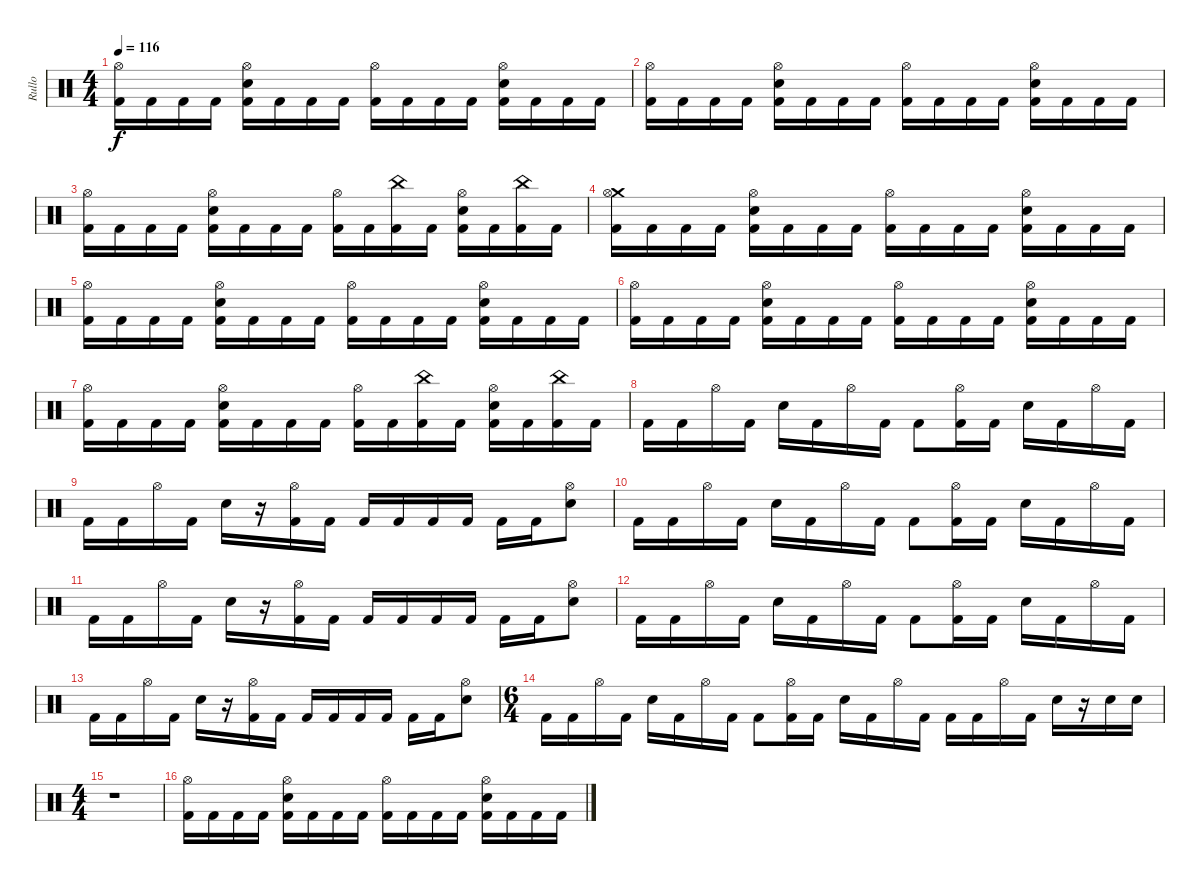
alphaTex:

\track ("Rullo" "Rullo") {instrument percussion}
\staff {score}
\articulation defaults
\ts (4 4)
\tempo 116
\clef neutral
\ks c
("Hi-Hat (open)" "Kick (hit) 2").16{dy f} "Kick (hit) 2".16 "Kick (hit) 2".16 "Kick (hit) 2".16 ("Hi-Hat (open)" "Electric Snare (hit)" "Kick (hit) 2").16 "Kick (hit) 2".16 "Kick (hit) 2".16 "Kick (hit) 2".16 ("Hi-Hat (open)" "Kick (hit) 2").16 "Kick (hit) 2".16 "Kick (hit) 2".16 "Kick (hit) 2".16 ("Hi-Hat (open)" "Electric Snare (hit)" "Kick (hit) 2").16 "Kick (hit) 2".16 "Kick (hit) 2".16 "Kick (hit) 2".16 |
("Hi-Hat (open)" "Kick (hit) 2").16 "Kick (hit) 2".16 "Kick (hit) 2".16 "Kick (hit) 2".16 ("Hi-Hat (open)" "Electric Snare (hit)" "Kick (hit) 2").16 "Kick (hit) 2".16 "Kick (hit) 2".16 "Kick (hit) 2".16 ("Hi-Hat (open)" "Kick (hit) 2").16 "Kick (hit) 2".16 "Kick (hit) 2".16 "Kick (hit) 2".16 ("Hi-Hat (open)" "Electric Snare (hit)" "Kick (hit) 2").16 "Kick (hit) 2".16 "Kick (hit) 2".16 "Kick (hit) 2".16 |
("Hi-Hat (open)" "Kick (hit) 2").16 "Kick (hit) 2".16 "Kick (hit) 2".16 "Kick (hit) 2".16 ("Hi-Hat (open)" "Electric Snare (hit)" "Kick (hit) 2").16 "Kick (hit) 2".16 "Kick (hit) 2".16 "Kick (hit) 2".16 ("Hi-Hat (open)" "Kick (hit) 2").16 "Kick (hit) 2".16 ("China (hit)" "Kick (hit) 2").16 "Kick (hit) 2".16 ("Hi-Hat (open)" "Electric Snare (hit)" "Kick (hit) 2").16 "Kick (hit) 2".16 ("China (hit)" "Kick (hit) 2").16 "Kick (hit) 2".16 |
("Crash medium (hit)" "Hi-Hat (open)" "Kick (hit) 2").16 "Kick (hit) 2".16 "Kick (hit) 2".16 "Kick (hit) 2".16 ("Hi-Hat (open)" "Electric Snare (hit)" "Kick (hit) 2").16 "Kick (hit) 2".16 "Kick (hit) 2".16 "Kick (hit) 2".16 ("Hi-Hat (open)" "Kick (hit) 2").16 "Kick (hit) 2".16 "Kick (hit) 2".16 "Kick (hit) 2".16 ("Hi-Hat (open)" "Electric Snare (hit)" "Kick (hit) 2").16 "Kick (hit) 2".16 "Kick (hit) 2".16 "Kick (hit) 2".16 |
("Hi-Hat (open)" "Kick (hit) 2").16 "Kick (hit) 2".16 "Kick (hit) 2".16 "Kick (hit) 2".16 ("Hi-Hat (open)" "Electric Snare (hit)" "Kick (hit) 2").16 "Kick (hit) 2".16 "Kick (hit) 2".16 "Kick (hit) 2".16 ("Hi-Hat (open)" "Kick (hit) 2").16 "Kick (hit) 2".16 "Kick (hit) 2".16 "Kick (hit) 2".16 ("Hi-Hat (open)" "Electric Snare (hit)" "Kick (hit) 2").16 "Kick (hit) 2".16 "Kick (hit) 2".16 "Kick (hit) 2".16 |
("Hi-Hat (open)" "Kick (hit) 2").16 "Kick (hit) 2".16 "Kick (hit) 2".16 "Kick (hit) 2".16 ("Hi-Hat (open)" "Electric Snare (hit)" "Kick (hit) 2").16 "Kick (hit) 2".16 "Kick (hit) 2".16 "Kick (hit) 2".16 ("Hi-Hat (open)" "Kick (hit) 2").16 "Kick (hit) 2".16 "Kick (hit) 2".16 "Kick (hit) 2".16 ("Hi-Hat (open)" "Electric Snare (hit)" "Kick (hit) 2").16 "Kick (hit) 2".16 "Kick (hit) 2".16 "Kick (hit) 2".16 |
("Hi-Hat (open)" "Kick (hit) 2").16 "Kick (hit) 2".16 "Kick (hit) 2".16 "Kick (hit) 2".16 ("Hi-Hat (open)" "Electric Snare (hit)" "Kick (hit) 2").16 "Kick (hit) 2".16 "Kick (hit) 2".16 "Kick (hit) 2".16 ("Hi-Hat (open)" "Kick (hit) 2").16 "Kick (hit) 2".16 ("China (hit)" "Kick (hit) 2").16 "Kick (hit) 2".16 ("Hi-Hat (open)" "Electric Snare (hit)" "Kick (hit) 2").16 "Kick (hit) 2".16 ("China (hit)" "Kick (hit) 2").16 "Kick (hit) 2".16 |
"Kick (hit) 2".16 "Kick (hit) 2".16 "Hi-Hat (open)".16 "Kick (hit) 2".16 "Electric Snare (hit)".16 "Kick (hit) 2".16 "Hi-Hat (open)".16 "Kick (hit) 2".16 "Kick (hit) 2".8 ("Hi-Hat (open)" "Kick (hit) 2").16 "Kick (hit) 2".16 "Electric Snare (hit)".16 "Kick (hit) 2".16 "Hi-Hat (open)".16 "Kick (hit) 2".16 |
"Kick (hit) 2".16 "Kick (hit) 2".16 "Hi-Hat (open)".16 "Kick (hit) 2".16 "Electric Snare (hit)".16 r.16 ("Hi-Hat (open)" "Kick (hit) 2").16 "Kick (hit) 2".16 "Kick (hit) 2".16 "Kick (hit) 2".16 "Kick (hit) 2".16 "Kick (hit) 2".16 "Kick (hit) 2".16 "Kick (hit) 2".16 ("Hi-Hat (open)" "Electric Snare (hit)").8 |
"Kick (hit) 2".16 "Kick (hit) 2".16 "Hi-Hat (open)".16 "Kick (hit) 2".16 "Electric Snare (hit)".16 "Kick (hit) 2".16 "Hi-Hat (open)".16 "Kick (hit) 2".16 "Kick (hit) 2".8 ("Hi-Hat (open)" "Kick (hit) 2").16 "Kick (hit) 2".16 "Electric Snare (hit)".16 "Kick (hit) 2".16 "Hi-Hat (open)".16 "Kick (hit) 2".16 |
"Kick (hit) 2".16 "Kick (hit) 2".16 "Hi-Hat (open)".16 "Kick (hit) 2".16 "Electric Snare (hit)".16 r.16 ("Hi-Hat (open)" "Kick (hit) 2").16 "Kick (hit) 2".16 "Kick (hit) 2".16 "Kick (hit) 2".16 "Kick (hit) 2".16 "Kick (hit) 2".16 "Kick (hit) 2".16 "Kick (hit) 2".16 ("Hi-Hat (open)" "Electric Snare (hit)").8 |
"Kick (hit) 2".16 "Kick (hit) 2".16 "Hi-Hat (open)".16 "Kick (hit) 2".16 "Electric Snare (hit)".16 "Kick (hit) 2".16 "Hi-Hat (open)".16 "Kick (hit) 2".16 "Kick (hit) 2".8 ("Hi-Hat (open)" "Kick (hit) 2").16 "Kick (hit) 2".16 "Electric Snare (hit)".16 "Kick (hit) 2".16 "Hi-Hat (open)".16 "Kick (hit) 2".16 |
"Kick (hit) 2".16 "Kick (hit) 2".16 "Hi-Hat (open)".16 "Kick (hit) 2".16 "Electric Snare (hit)".16 r.16 ("Hi-Hat (open)" "Kick (hit) 2").16 "Kick (hit) 2".16 "Kick (hit) 2".16 "Kick (hit) 2".16 "Kick (hit) 2".16 "Kick (hit) 2".16 "Kick (hit) 2".16 "Kick (hit) 2".16 ("Hi-Hat (open)" "Electric Snare (hit)").8 |
\ts (6 4)
"Kick (hit) 2".16 "Kick (hit) 2".16 "Hi-Hat (open)".16 "Kick (hit) 2".16 "Electric Snare (hit)".16 "Kick (hit) 2".16 "Hi-Hat (open)".16 "Kick (hit) 2".16 "Kick (hit) 2".8 ("Hi-Hat (open)" "Kick (hit) 2").16 "Kick (hit) 2".16 "Electric Snare (hit)".16 "Kick (hit) 2".16 "Hi-Hat (open)".16 "Kick (hit) 2".16 "Kick (hit) 2".16 "Kick (hit) 2".16 "Hi-Hat (open)".16 "Kick (hit) 2".16 "Electric Snare (hit)".16 r.16 "Electric Snare (hit)".16 "Electric Snare (hit)".16 |
\ts (4 4)
r.1 |
("Hi-Hat (open)" "Kick (hit) 2").16 "Kick (hit) 2".16 "Kick (hit) 2".16 "Kick (hit) 2".16 ("Hi-Hat (open)" "Electric Snare (hit)" "Kick (hit) 2").16 "Kick (hit) 2".16 "Kick (hit) 2".16 "Kick (hit) 2".16 ("Hi-Hat (open)" "Kick (hit) 2").16 "Kick (hit) 2".16 "Kick (hit) 2".16 "Kick (hit) 2".16 ("Hi-Hat (open)" "Electric Snare (hit)" "Kick (hit) 2").16 "Kick (hit) 2".16 "Kick (hit) 2".16 "Kick (hit) 2".16
